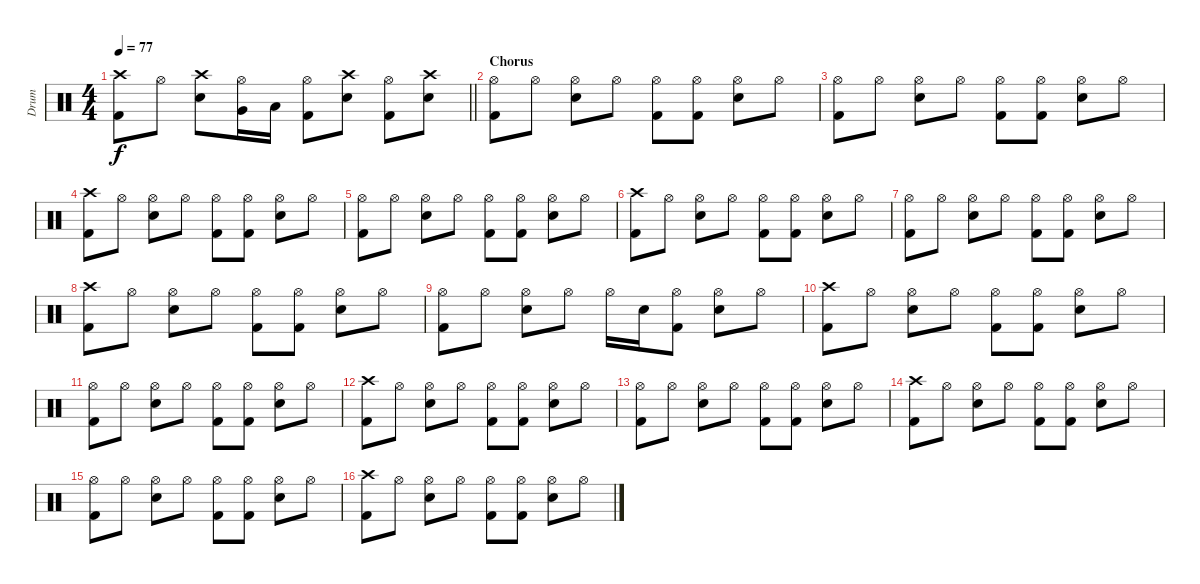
\track ("Drum" "Drum") {instrument percussion}
\staff {score}
\articulation defaults
\ts (4 4)
\tempo 77
\clef neutral
\barLineRight lightlight
\ks c
("Crash high (hit)" "Kick (hit) 2").8{dy f} "Hi-Hat (open)".8 ("Crash high (hit)" "Snare (hit) 2").8 ("Hi-Hat (open)" "Very Low Tom (hit)").16 "Low Tom (hit)".16 ("Hi-Hat (open)" "Kick (hit) 2").8 ("Crash high (hit)" "Snare (hit) 2").8 ("Hi-Hat (open)" "Kick (hit) 2").8 ("Crash high (hit)" "Snare (hit) 2").8 |
\section ("" "Chorus")
("Hi-Hat (open)" "Kick (hit) 2").8 "Hi-Hat (open)".8 ("Hi-Hat (open)" "Snare (hit) 2").8 "Hi-Hat (open)".8 ("Hi-Hat (open)" "Kick (hit) 2").8 ("Hi-Hat (open)" "Kick (hit) 2").8 ("Hi-Hat (open)" "Snare (hit) 2").8 "Hi-Hat (open)".8 |
("Hi-Hat (open)" "Kick (hit) 2").8 "Hi-Hat (open)".8 ("Hi-Hat (open)" "Snare (hit) 2").8 "Hi-Hat (open)".8 ("Hi-Hat (open)" "Kick (hit) 2").8 ("Hi-Hat (open)" "Kick (hit) 2").8 ("Hi-Hat (open)" "Snare (hit) 2").8 "Hi-Hat (open)".8 |
("Crash high (hit)" "Kick (hit) 2").8 "Hi-Hat (open)".8 ("Hi-Hat (open)" "Snare (hit) 2").8 "Hi-Hat (open)".8 ("Hi-Hat (open)" "Kick (hit) 2").8 ("Hi-Hat (open)" "Kick (hit) 2").8 ("Hi-Hat (open)" "Snare (hit) 2").8 "Hi-Hat (open)".8 |
("Hi-Hat (open)" "Kick (hit) 2").8 "Hi-Hat (open)".8 ("Hi-Hat (open)" "Snare (hit) 2").8 "Hi-Hat (open)".8 ("Hi-Hat (open)" "Kick (hit) 2").8 ("Hi-Hat (open)" "Kick (hit) 2").8 ("Hi-Hat (open)" "Snare (hit) 2").8 "Hi-Hat (open)".8 |
("Crash high (hit)" "Kick (hit) 2").8 "Hi-Hat (open)".8 ("Hi-Hat (open)" "Snare (hit) 2").8 "Hi-Hat (open)".8 ("Hi-Hat (open)" "Kick (hit) 2").8 ("Hi-Hat (open)" "Kick (hit) 2").8 ("Hi-Hat (open)" "Snare (hit) 2").8 "Hi-Hat (open)".8 |
("Hi-Hat (open)" "Kick (hit) 2").8 "Hi-Hat (open)".8 ("Hi-Hat (open)" "Snare (hit) 2").8 "Hi-Hat (open)".8 ("Hi-Hat (open)" "Kick (hit) 2").8 ("Hi-Hat (open)" "Kick (hit) 2").8 ("Hi-Hat (open)" "Snare (hit) 2").8 "Hi-Hat (open)".8 |
("Crash high (hit)" "Kick (hit) 2").8 "Hi-Hat (open)".8 ("Hi-Hat (open)" "Snare (hit) 2").8 "Hi-Hat (open)".8 ("Hi-Hat (open)" "Kick (hit) 2").8 ("Hi-Hat (open)" "Kick (hit) 2").8 ("Hi-Hat (open)" "Snare (hit) 2").8 "Hi-Hat (open)".8 |
("Hi-Hat (open)" "Kick (hit) 2").8 "Hi-Hat (open)".8 ("Hi-Hat (open)" "Snare (hit) 2").8 "Hi-Hat (open)".8 "Hi-Hat (open)".16 "Snare (hit) 2".16 ("Hi-Hat (open)" "Kick (hit) 2").8 ("Hi-Hat (open)" "Snare (hit) 2").8 "Hi-Hat (open)".8 |
("Crash high (hit)" "Kick (hit) 2").8 "Hi-Hat (open)".8 ("Hi-Hat (open)" "Snare (hit) 2").8 "Hi-Hat (open)".8 ("Hi-Hat (open)" "Kick (hit) 2").8 ("Hi-Hat (open)" "Kick (hit) 2").8 ("Hi-Hat (open)" "Snare (hit) 2").8 "Hi-Hat (open)".8 |
("Hi-Hat (open)" "Kick (hit) 2").8 "Hi-Hat (open)".8 ("Hi-Hat (open)" "Snare (hit) 2").8 "Hi-Hat (open)".8 ("Hi-Hat (open)" "Kick (hit) 2").8 ("Hi-Hat (open)" "Kick (hit) 2").8 ("Hi-Hat (open)" "Snare (hit) 2").8 "Hi-Hat (open)".8 |
("Crash high (hit)" "Kick (hit) 2").8 "Hi-Hat (open)".8 ("Hi-Hat (open)" "Snare (hit) 2").8 "Hi-Hat (open)".8 ("Hi-Hat (open)" "Kick (hit) 2").8 ("Hi-Hat (open)" "Kick (hit) 2").8 ("Hi-Hat (open)" "Snare (hit) 2").8 "Hi-Hat (open)".8 |
("Hi-Hat (open)" "Kick (hit) 2").8 "Hi-Hat (open)".8 ("Hi-Hat (open)" "Snare (hit) 2").8 "Hi-Hat (open)".8 ("Hi-Hat (open)" "Kick (hit) 2").8 ("Hi-Hat (open)" "Kick (hit) 2").8 ("Hi-Hat (open)" "Snare (hit) 2").8 "Hi-Hat (open)".8 |
("Crash high (hit)" "Kick (hit) 2").8 "Hi-Hat (open)".8 ("Hi-Hat (open)" "Snare (hit) 2").8 "Hi-Hat (open)".8 ("Hi-Hat (open)" "Kick (hit) 2").8 ("Hi-Hat (open)" "Kick (hit) 2").8 ("Hi-Hat (open)" "Snare (hit) 2").8 "Hi-Hat (open)".8 |
("Hi-Hat (open)" "Kick (hit) 2").8 "Hi-Hat (open)".8 ("Hi-Hat (open)" "Snare (hit) 2").8 "Hi-Hat (open)".8 ("Hi-Hat (open)" "Kick (hit) 2").8 ("Hi-Hat (open)" "Kick (hit) 2").8 ("Hi-Hat (open)" "Snare (hit) 2").8 "Hi-Hat (open)".8 |
("Crash high (hit)" "Kick (hit) 2").8 "Hi-Hat (open)".8 ("Hi-Hat (open)" "Snare (hit) 2").8 "Hi-Hat (open)".8 ("Hi-Hat (open)" "Kick (hit) 2").8 ("Hi-Hat (open)" "Kick (hit) 2").8 ("Hi-Hat (open)" "Snare (hit) 2").8 "Hi-Hat (open)".8
